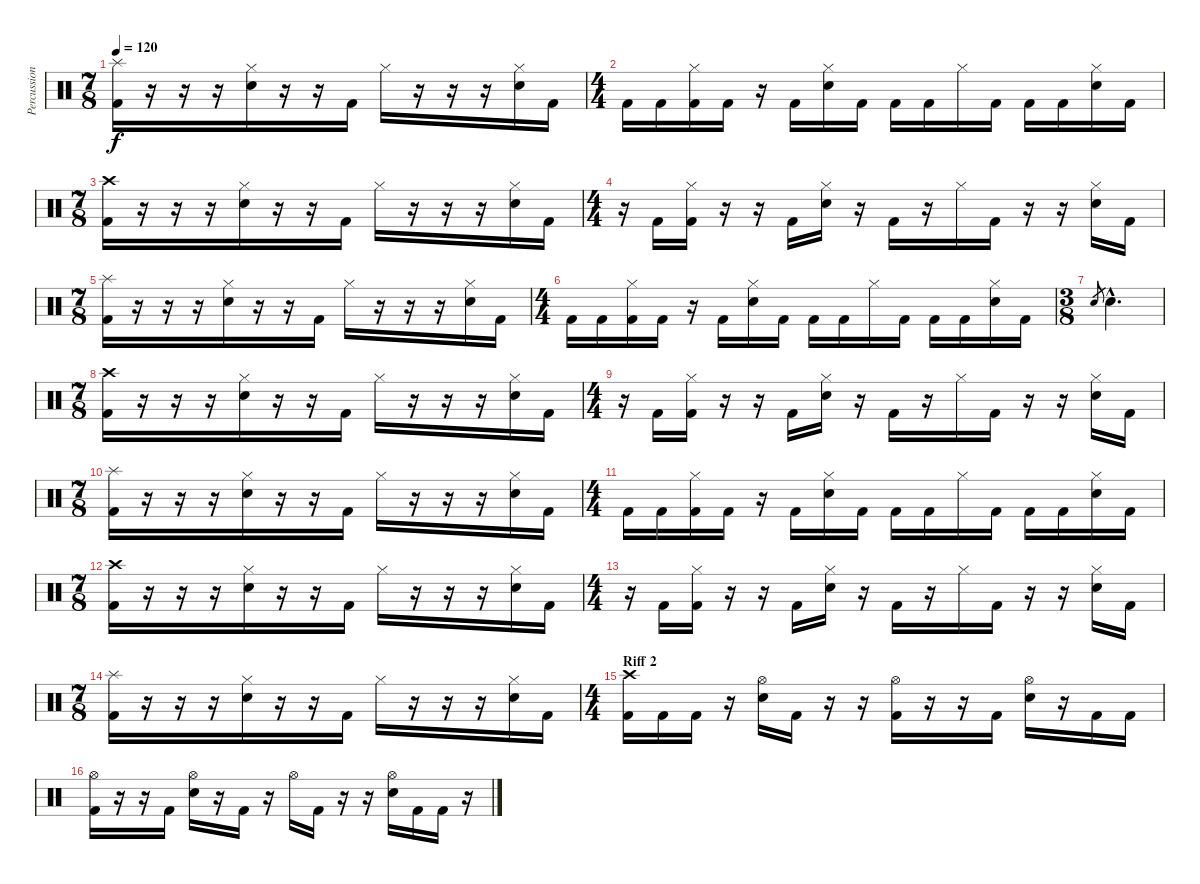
\track ("Percussion" "Percussion") {instrument percussion}
\staff {score}
\articulation defaults
\ts (7 8)
\tempo 120
\clef neutral
\ks c
("Splash (hit)" "Kick (hit) 2").16{dy f} r.16 r.16 r.16 ("Hi-Hat (closed)" "Electric Snare (hit)").16 r.16 r.16 "Kick (hit) 2".16 "Hi-Hat (closed)".16 r.16 r.16 r.16 ("Hi-Hat (closed)" "Electric Snare (hit)").16 "Kick (hit) 2".16 |
\ts (4 4)
"Kick (hit) 2".16 "Kick (hit) 2".16 ("Hi-Hat (closed)" "Kick (hit) 2").16 "Kick (hit) 2".16 r.16 "Kick (hit) 2".16 ("Hi-Hat (closed)" "Electric Snare (hit)").16 "Kick (hit) 2".16 "Kick (hit) 2".16 "Kick (hit) 2".16 "Hi-Hat (closed)".16 "Kick (hit) 2".16 "Kick (hit) 2".16 "Kick (hit) 2".16 ("Hi-Hat (closed)" "Electric Snare (hit)").16 "Kick (hit) 2".16 |
\ts (7 8)
("Crash high (hit)" "Kick (hit) 2").16 r.16 r.16 r.16 ("Hi-Hat (closed)" "Electric Snare (hit)").16 r.16 r.16 "Kick (hit) 2".16 "Hi-Hat (closed)".16 r.16 r.16 r.16 ("Hi-Hat (closed)" "Electric Snare (hit)").16 "Kick (hit) 2".16 |
\ts (4 4)
r.16 "Kick (hit) 2".16 ("Hi-Hat (closed)" "Kick (hit) 2").16 r.16 r.16 "Kick (hit) 2".16 ("Hi-Hat (closed)" "Electric Snare (hit)").16 r.16 "Kick (hit) 2".16 r.16 "Hi-Hat (closed)".16 "Kick (hit) 2".16 r.16 r.16 ("Hi-Hat (closed)" "Electric Snare (hit)").16 "Kick (hit) 2".16 |
\ts (7 8)
("Splash (hit)" "Kick (hit) 2").16 r.16 r.16 r.16 ("Hi-Hat (closed)" "Electric Snare (hit)").16 r.16 r.16 "Kick (hit) 2".16 "Hi-Hat (closed)".16 r.16 r.16 r.16 ("Hi-Hat (closed)" "Electric Snare (hit)").16 "Kick (hit) 2".16 |
\ts (4 4)
"Kick (hit) 2".16 "Kick (hit) 2".16 ("Hi-Hat (closed)" "Kick (hit) 2").16 "Kick (hit) 2".16 r.16 "Kick (hit) 2".16 ("Hi-Hat (closed)" "Electric Snare (hit)").16 "Kick (hit) 2".16 "Kick (hit) 2".16 "Kick (hit) 2".16 "Hi-Hat (closed)".16 "Kick (hit) 2".16 "Kick (hit) 2".16 "Kick (hit) 2".16 ("Hi-Hat (closed)" "Electric Snare (hit)").16 "Kick (hit) 2".16 |
\ts (3 8)
"Electric Snare (hit)".8{gr} "Electric Snare (hit)"{hac}.4{d} |
\ts (7 8)
("Crash high (hit)" "Kick (hit) 2").16 r.16 r.16 r.16 ("Hi-Hat (closed)" "Electric Snare (hit)").16 r.16 r.16 "Kick (hit) 2".16 "Hi-Hat (closed)".16 r.16 r.16 r.16 ("Hi-Hat (closed)" "Electric Snare (hit)").16 "Kick (hit) 2".16 |
\ts (4 4)
r.16 "Kick (hit) 2".16 ("Hi-Hat (closed)" "Kick (hit) 2").16 r.16 r.16 "Kick (hit) 2".16 ("Hi-Hat (closed)" "Electric Snare (hit)").16 r.16 "Kick (hit) 2".16 r.16 "Hi-Hat (closed)".16 "Kick (hit) 2".16 r.16 r.16 ("Hi-Hat (closed)" "Electric Snare (hit)").16 "Kick (hit) 2".16 |
\ts (7 8)
("Splash (hit)" "Kick (hit) 2").16 r.16 r.16 r.16 ("Hi-Hat (closed)" "Electric Snare (hit)").16 r.16 r.16 "Kick (hit) 2".16 "Hi-Hat (closed)".16 r.16 r.16 r.16 ("Hi-Hat (closed)" "Electric Snare (hit)").16 "Kick (hit) 2".16 |
\ts (4 4)
"Kick (hit) 2".16 "Kick (hit) 2".16 ("Hi-Hat (closed)" "Kick (hit) 2").16 "Kick (hit) 2".16 r.16 "Kick (hit) 2".16 ("Hi-Hat (closed)" "Electric Snare (hit)").16 "Kick (hit) 2".16 "Kick (hit) 2".16 "Kick (hit) 2".16 "Hi-Hat (closed)".16 "Kick (hit) 2".16 "Kick (hit) 2".16 "Kick (hit) 2".16 ("Hi-Hat (closed)" "Electric Snare (hit)").16 "Kick (hit) 2".16 |
\ts (7 8)
("Crash high (hit)" "Kick (hit) 2").16 r.16 r.16 r.16 ("Hi-Hat (closed)" "Electric Snare (hit)").16 r.16 r.16 "Kick (hit) 2".16 "Hi-Hat (closed)".16 r.16 r.16 r.16 ("Hi-Hat (closed)" "Electric Snare (hit)").16 "Kick (hit) 2".16 |
\ts (4 4)
r.16 "Kick (hit) 2".16 ("Hi-Hat (closed)" "Kick (hit) 2").16 r.16 r.16 "Kick (hit) 2".16 ("Hi-Hat (closed)" "Electric Snare (hit)").16 r.16 "Kick (hit) 2".16 r.16 "Hi-Hat (closed)".16 "Kick (hit) 2".16 r.16 r.16 ("Hi-Hat (closed)" "Electric Snare (hit)").16 "Kick (hit) 2".16 |
\ts (7 8)
("Splash (hit)" "Kick (hit) 2").16 r.16 r.16 r.16 ("Hi-Hat (closed)" "Electric Snare (hit)").16 r.16 r.16 "Kick (hit) 2".16 "Hi-Hat (closed)".16 r.16 r.16 r.16 ("Hi-Hat (closed)" "Electric Snare (hit)").16 "Kick (hit) 2".16 |
\ts (4 4)
\section ("" "Riff 2")
("Crash high (hit)" "Kick (hit) 2").16 "Kick (hit) 2".16 "Kick (hit) 2".16 r.16 ("Hi-Hat (open)" "Electric Snare (hit)").16 "Kick (hit) 2".16 r.16 r.16 ("Hi-Hat (open)" "Kick (hit) 2").16 r.16 r.16 "Kick (hit) 2".16 ("Hi-Hat (open)" "Electric Snare (hit)").16 r.16 "Kick (hit) 2".16 "Kick (hit) 2".16 |
("Hi-Hat (open)" "Kick (hit) 2").16 r.16 r.16 "Kick (hit) 2".16 ("Hi-Hat (open)" "Electric Snare (hit)").16 r.16 "Kick (hit) 2".16 r.16 "Hi-Hat (open)".16 "Kick (hit) 2".16 r.16 r.16 ("Hi-Hat (open)" "Electric Snare (hit)").16 "Kick (hit) 2".16 "Kick (hit) 2".16 r.16
